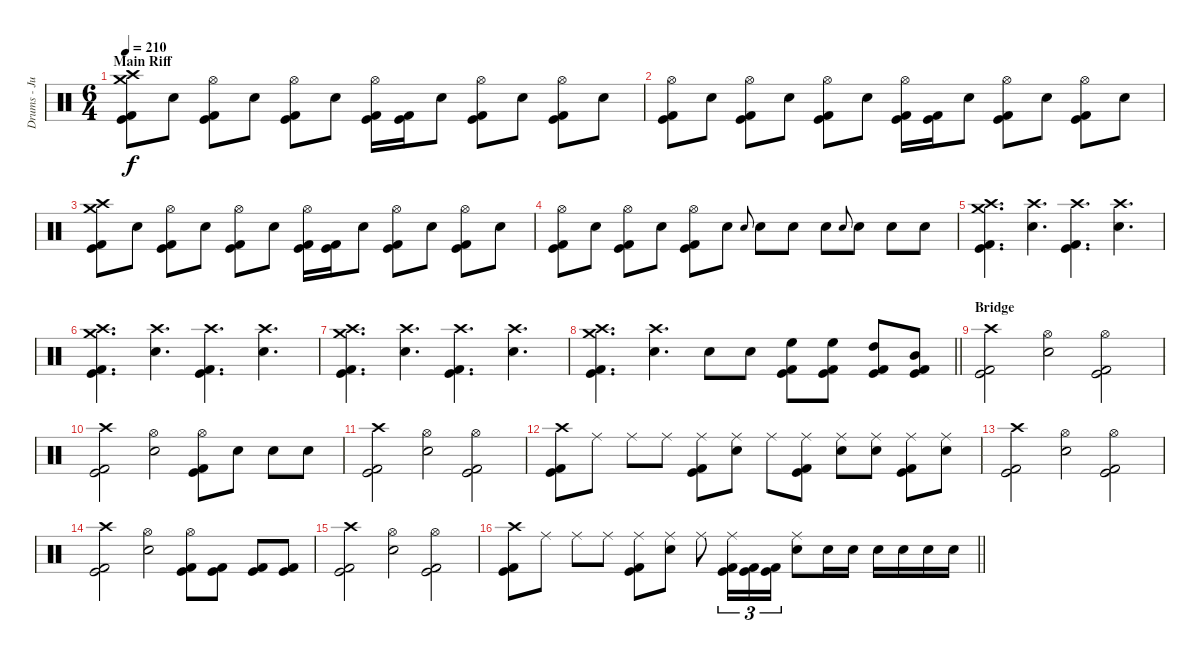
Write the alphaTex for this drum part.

\track ("Drums - Justin Foley" "Drums - Ju") {instrument percussion}
\staff {score}
\articulation defaults
\ts (6 4)
\section ("" "Main Riff")
\tempo 210
\clef neutral
\ks c
("Crash high (hit)" "Kick (hit) 2" "Kick (hit)" "Crash medium (hit)").8{dy f} "Snare (hit) 2".8 ("Hi-Hat (open)" "Kick (hit) 2" "Kick (hit)").8 "Snare (hit) 2".8 ("Hi-Hat (open)" "Kick (hit) 2" "Kick (hit)").8 "Snare (hit) 2".8 ("Hi-Hat (open)" "Kick (hit) 2" "Kick (hit)").16 ("Kick (hit) 2" "Kick (hit)").16 "Snare (hit) 2".8 ("Hi-Hat (open)" "Kick (hit) 2" "Kick (hit)").8 "Snare (hit) 2".8 ("Hi-Hat (open)" "Kick (hit) 2" "Kick (hit)").8 "Snare (hit) 2".8 |
("Hi-Hat (open)" "Kick (hit) 2" "Kick (hit)").8 "Snare (hit) 2".8 ("Hi-Hat (open)" "Kick (hit) 2" "Kick (hit)").8 "Snare (hit) 2".8 ("Hi-Hat (open)" "Kick (hit) 2" "Kick (hit)").8 "Snare (hit) 2".8 ("Hi-Hat (open)" "Kick (hit) 2" "Kick (hit)").16 ("Kick (hit) 2" "Kick (hit)").16 "Snare (hit) 2".8 ("Hi-Hat (open)" "Kick (hit) 2" "Kick (hit)").8 "Snare (hit) 2".8 ("Hi-Hat (open)" "Kick (hit) 2" "Kick (hit)").8 "Snare (hit) 2".8 |
("Crash high (hit)" "Kick (hit) 2" "Kick (hit)" "Crash medium (hit)").8 "Snare (hit) 2".8 ("Hi-Hat (open)" "Kick (hit) 2" "Kick (hit)").8 "Snare (hit) 2".8 ("Hi-Hat (open)" "Kick (hit) 2" "Kick (hit)").8 "Snare (hit) 2".8 ("Hi-Hat (open)" "Kick (hit) 2" "Kick (hit)").16 ("Kick (hit) 2" "Kick (hit)").16 "Snare (hit) 2".8 ("Hi-Hat (open)" "Kick (hit) 2" "Kick (hit)").8 "Snare (hit) 2".8 ("Hi-Hat (open)" "Kick (hit) 2" "Kick (hit)").8 "Snare (hit) 2".8 |
("Hi-Hat (open)" "Kick (hit) 2" "Kick (hit)").8 "Snare (hit) 2".8 ("Hi-Hat (open)" "Kick (hit) 2" "Kick (hit)").8 "Snare (hit) 2".8 ("Hi-Hat (open)" "Kick (hit) 2" "Kick (hit)").8 "Snare (hit) 2".8 "Snare (hit) 2".8{gr onbeat} "Snare (hit) 2".8 "Snare (hit) 2".8 "Snare (hit) 2".8 "Snare (hit) 2".8{gr onbeat} "Snare (hit) 2".8 "Snare (hit) 2".8 "Snare (hit) 2".8 |
("Crash high (hit)" "Kick (hit) 2" "Kick (hit)" "Crash medium (hit)").4{d} ("Crash high (hit)" "Snare (hit) 2").4{d} ("Crash high (hit)" "Kick (hit) 2" "Kick (hit)").4{d} ("Crash high (hit)" "Snare (hit) 2").4{d} |
("Crash high (hit)" "Kick (hit) 2" "Kick (hit)" "Crash medium (hit)").4{d} ("Crash high (hit)" "Snare (hit) 2").4{d} ("Crash high (hit)" "Kick (hit) 2" "Kick (hit)").4{d} ("Crash high (hit)" "Snare (hit) 2").4{d} |
("Crash high (hit)" "Kick (hit) 2" "Kick (hit)" "Crash medium (hit)").4{d} ("Crash high (hit)" "Snare (hit) 2").4{d} ("Crash high (hit)" "Kick (hit) 2" "Kick (hit)").4{d} ("Crash high (hit)" "Snare (hit) 2").4{d} |
\barLineRight lightlight
("Crash high (hit)" "Kick (hit) 2" "Kick (hit)" "Crash medium (hit)").4{d} ("Crash high (hit)" "Snare (hit) 2").4{d} "Snare (hit) 2".8 "Snare (hit) 2".8 ("High Floor Tom (hit)" "Kick (hit) 2" "Kick (hit)").8 ("High Floor Tom (hit)" "Kick (hit) 2" "Kick (hit)").8 ("High Tom (hit)" "Kick (hit) 2" "Kick (hit)").8 ("Mid Tom (hit)" "Kick (hit) 2" "Kick (hit)").8 |
\section ("" "Bridge")
("Crash high (hit)" "Kick (hit) 2" "Kick (hit)").2 ("Hi-Hat (open)" "Snare (hit) 2").2 ("Hi-Hat (open)" "Kick (hit) 2" "Kick (hit)").2 |
("Crash high (hit)" "Kick (hit) 2" "Kick (hit)").2 ("Hi-Hat (open)" "Snare (hit) 2").2 ("Hi-Hat (open)" "Kick (hit) 2" "Kick (hit)").8 "Snare (hit) 2".8 "Snare (hit) 2".8 "Snare (hit) 2".8 |
("Crash high (hit)" "Kick (hit) 2" "Kick (hit)").2 ("Hi-Hat (open)" "Snare (hit) 2").2 ("Hi-Hat (open)" "Kick (hit) 2" "Kick (hit)").2 |
("Crash high (hit)" "Kick (hit) 2" "Kick (hit)").8 "Ride (middle)".8 "Ride (middle)".8 "Ride (middle)".8 ("Ride (middle)" "Kick (hit) 2" "Kick (hit)").8 ("Ride (middle)" "Snare (hit) 2").8 "Ride (middle)".8 ("Ride (middle)" "Kick (hit) 2" "Kick (hit)").8 ("Ride (middle)" "Snare (hit) 2").8 ("Ride (middle)" "Snare (hit) 2").8 ("Ride (middle)" "Kick (hit) 2" "Kick (hit)").8 ("Ride (middle)" "Snare (hit) 2").8 |
("Crash high (hit)" "Kick (hit) 2" "Kick (hit)").2 ("Hi-Hat (open)" "Snare (hit) 2").2 ("Hi-Hat (open)" "Kick (hit) 2" "Kick (hit)").2 |
("Crash high (hit)" "Kick (hit) 2" "Kick (hit)").2 ("Hi-Hat (open)" "Snare (hit) 2").2 ("Hi-Hat (open)" "Kick (hit) 2" "Kick (hit)").8 ("Kick (hit) 2" "Kick (hit)").8 ("Kick (hit) 2" "Kick (hit)").8 ("Kick (hit) 2" "Kick (hit)").8 |
("Crash high (hit)" "Kick (hit) 2" "Kick (hit)").2 ("Hi-Hat (open)" "Snare (hit) 2").2 ("Hi-Hat (open)" "Kick (hit) 2" "Kick (hit)").2 |
\barLineRight lightlight
("Crash high (hit)" "Kick (hit) 2" "Kick (hit)").8 "Ride (middle)".8 "Ride (middle)".8 "Ride (middle)".8 ("Ride (middle)" "Kick (hit) 2" "Kick (hit)").8 ("Ride (middle)" "Snare (hit) 2").8 "Ride (middle)".8 ("Ride (middle)" "Kick (hit) 2" "Kick (hit)").16{tu (3 2)} ("Kick (hit) 2" "Kick (hit)").16{tu (3 2)} ("Kick (hit) 2" "Kick (hit)").16{tu (3 2)} ("Ride (middle)" "Snare (hit) 2").8 "Snare (hit) 2".16 "Snare (hit) 2".16 "Snare (hit) 2".16 "Snare (hit) 2".16 "Snare (hit) 2".16 "Snare (hit) 2".16
